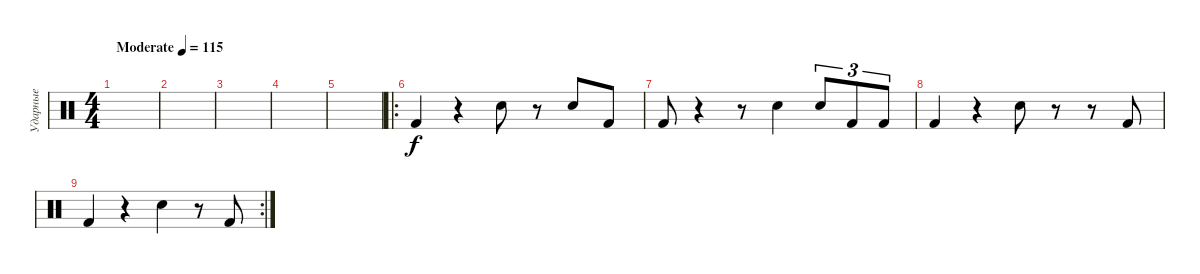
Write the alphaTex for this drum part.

\track ("Ударные" "Ударные") {instrument percussion}
\staff {score}
\articulation defaults
\ts (4 4)
\tempo (115 "Moderate")
\clef neutral
\ks c
|
|
|
|
|
\ro "Kick (hit) 2".4
r.4 "Snare (hit) 2".8 r.8 "Snare (hit) 2".8 "Kick (hit) 2".8 |
"Kick (hit) 2".8 r.4 r.8 "Snare (hit) 2".4 "Snare (hit) 2".8{tu (3 2)} "Kick (hit) 2".8{tu (3 2)} "Kick (hit) 2".8{tu (3 2)} |
"Kick (hit) 2".4 r.4 "Snare (hit) 2".8 r.8 r.8 "Kick (hit) 2".8 |
\rc 2 "Kick (hit) 2".4
r.4 "Snare (hit) 2".4 r.8 "Kick (hit) 2".8
